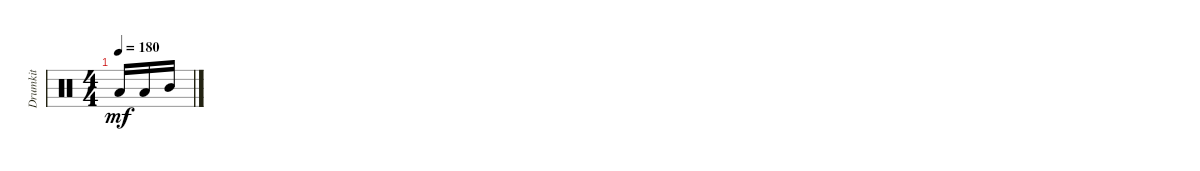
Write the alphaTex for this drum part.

\track ("Drumkit" "Drumkit") {instrument percussion}
\staff {score}
\articulation defaults
\ts (4 4)
\tempo 180
\clef neutral
\ks c "Low Tom (hit)".16{dy mf} "Low Tom (hit)".16 "Mid Tom (hit)".16
